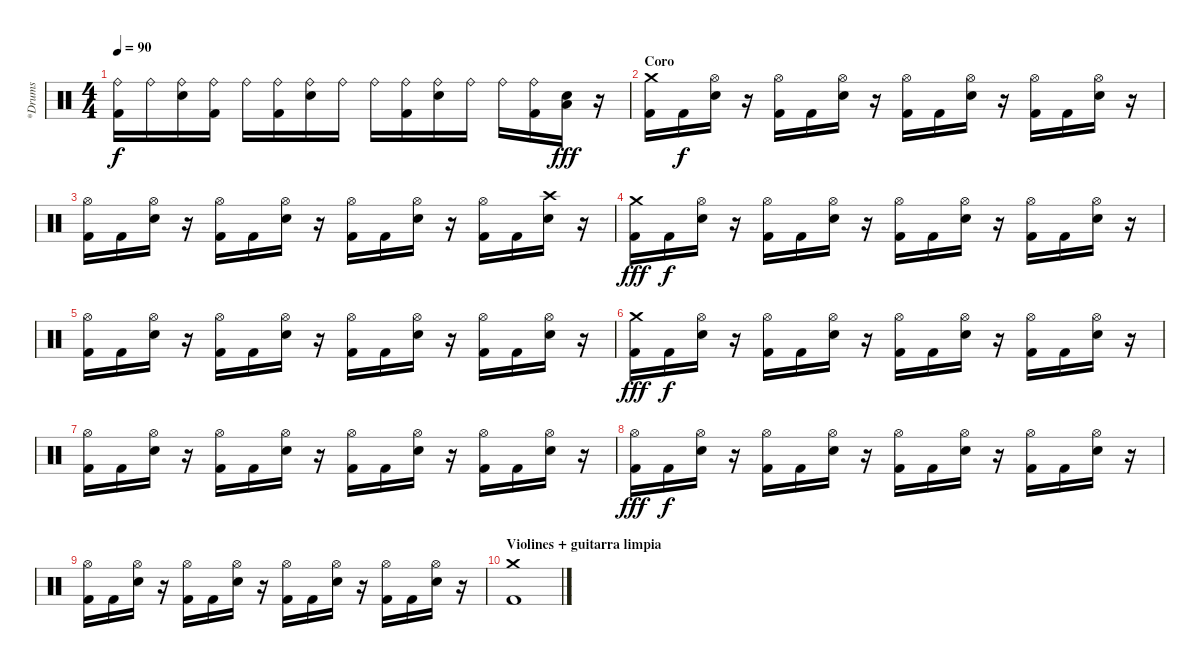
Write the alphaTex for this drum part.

\track ("*Drums" "*Drums") {instrument percussion}
\staff {score}
\articulation defaults
\ts (4 4)
\tempo 90
\clef neutral
\ks c
("Ride (bell)" "Kick (hit) 2").16{dy f} "Ride (bell)".16 ("Ride (bell)" "Electric Snare (hit)").16 ("Ride (bell)" "Kick (hit) 2").16 "Ride (bell)".16 ("Ride (bell)" "Kick (hit) 2").16 ("Ride (bell)" "Electric Snare (hit)").16 "Ride (bell)".16 "Ride (bell)".16 ("Ride (bell)" "Kick (hit) 2").16 ("Ride (bell)" "Electric Snare (hit)").16 "Ride (bell)".16 "Ride (bell)".16 ("Ride (bell)" "Kick (hit) 2").16 ("Electric Snare (hit)" "Low Floor Tom (hit)").16{dy fff} r.16 |
\section ("" "Coro")
("Crash medium (hit)" "Kick (hit) 2").16 "Kick (hit) 2".16{dy f} ("Hi-Hat (open)" "Electric Snare (hit)").16 r.16 ("Hi-Hat (open)" "Kick (hit) 2").16 "Kick (hit) 2".16 ("Hi-Hat (open)" "Electric Snare (hit)").16 r.16 ("Hi-Hat (open)" "Kick (hit) 2").16 "Kick (hit) 2".16 ("Hi-Hat (open)" "Electric Snare (hit)").16 r.16 ("Hi-Hat (open)" "Kick (hit) 2").16 "Kick (hit) 2".16 ("Hi-Hat (open)" "Electric Snare (hit)").16 r.16 |
("Hi-Hat (open)" "Kick (hit) 2").16 "Kick (hit) 2".16 ("Hi-Hat (open)" "Electric Snare (hit)").16 r.16 ("Hi-Hat (open)" "Kick (hit) 2").16 "Kick (hit) 2".16 ("Hi-Hat (open)" "Electric Snare (hit)").16 r.16 ("Hi-Hat (open)" "Kick (hit) 2").16 "Kick (hit) 2".16 ("Hi-Hat (open)" "Electric Snare (hit)").16 r.16 ("Hi-Hat (open)" "Kick (hit) 2").16 "Kick (hit) 2".16 ("Crash high (hit)" "Electric Snare (hit)").16 r.16 |
("Crash medium (hit)" "Kick (hit) 2").16{dy fff} "Kick (hit) 2".16{dy f} ("Hi-Hat (open)" "Electric Snare (hit)").16 r.16 ("Hi-Hat (open)" "Kick (hit) 2").16 "Kick (hit) 2".16 ("Hi-Hat (open)" "Electric Snare (hit)").16 r.16 ("Hi-Hat (open)" "Kick (hit) 2").16 "Kick (hit) 2".16 ("Hi-Hat (open)" "Electric Snare (hit)").16 r.16 ("Hi-Hat (open)" "Kick (hit) 2").16 "Kick (hit) 2".16 ("Hi-Hat (open)" "Electric Snare (hit)").16 r.16 |
("Hi-Hat (open)" "Kick (hit) 2").16 "Kick (hit) 2".16 ("Hi-Hat (open)" "Electric Snare (hit)").16 r.16 ("Hi-Hat (open)" "Kick (hit) 2").16 "Kick (hit) 2".16 ("Hi-Hat (open)" "Electric Snare (hit)").16 r.16 ("Hi-Hat (open)" "Kick (hit) 2").16 "Kick (hit) 2".16 ("Hi-Hat (open)" "Electric Snare (hit)").16 r.16 ("Hi-Hat (open)" "Kick (hit) 2").16 "Kick (hit) 2".16 ("Hi-Hat (open)" "Electric Snare (hit)").16 r.16 |
("Crash medium (hit)" "Kick (hit) 2").16{dy fff} "Kick (hit) 2".16{dy f} ("Hi-Hat (open)" "Electric Snare (hit)").16 r.16 ("Hi-Hat (open)" "Kick (hit) 2").16 "Kick (hit) 2".16 ("Hi-Hat (open)" "Electric Snare (hit)").16 r.16 ("Hi-Hat (open)" "Kick (hit) 2").16 "Kick (hit) 2".16 ("Hi-Hat (open)" "Electric Snare (hit)").16 r.16 ("Hi-Hat (open)" "Kick (hit) 2").16 "Kick (hit) 2".16 ("Hi-Hat (open)" "Electric Snare (hit)").16 r.16 |
("Hi-Hat (open)" "Kick (hit) 2").16 "Kick (hit) 2".16 ("Hi-Hat (open)" "Electric Snare (hit)").16 r.16 ("Hi-Hat (open)" "Kick (hit) 2").16 "Kick (hit) 2".16 ("Hi-Hat (open)" "Electric Snare (hit)").16 r.16 ("Hi-Hat (open)" "Kick (hit) 2").16 "Kick (hit) 2".16 ("Hi-Hat (open)" "Electric Snare (hit)").16 r.16 ("Hi-Hat (open)" "Kick (hit) 2").16 "Kick (hit) 2".16 ("Hi-Hat (open)" "Electric Snare (hit)").16 r.16 |
("Hi-Hat (open)" "Kick (hit) 2").16{dy fff} "Kick (hit) 2".16{dy f} ("Hi-Hat (open)" "Electric Snare (hit)").16 r.16 ("Hi-Hat (open)" "Kick (hit) 2").16 "Kick (hit) 2".16 ("Hi-Hat (open)" "Electric Snare (hit)").16 r.16 ("Hi-Hat (open)" "Kick (hit) 2").16 "Kick (hit) 2".16 ("Hi-Hat (open)" "Electric Snare (hit)").16 r.16 ("Hi-Hat (open)" "Kick (hit) 2").16 "Kick (hit) 2".16 ("Hi-Hat (open)" "Electric Snare (hit)").16 r.16 |
("Hi-Hat (open)" "Kick (hit) 2").16 "Kick (hit) 2".16 ("Hi-Hat (open)" "Electric Snare (hit)").16 r.16 ("Hi-Hat (open)" "Kick (hit) 2").16 "Kick (hit) 2".16 ("Hi-Hat (open)" "Electric Snare (hit)").16 r.16 ("Hi-Hat (open)" "Kick (hit) 2").16 "Kick (hit) 2".16 ("Hi-Hat (open)" "Electric Snare (hit)").16 r.16 ("Hi-Hat (open)" "Kick (hit) 2").16 "Kick (hit) 2".16 ("Hi-Hat (open)" "Electric Snare (hit)").16 r.16 |
\section ("" "Violines + guitarra limpia")
("Crash medium (hit)" "Kick (hit) 2").1
